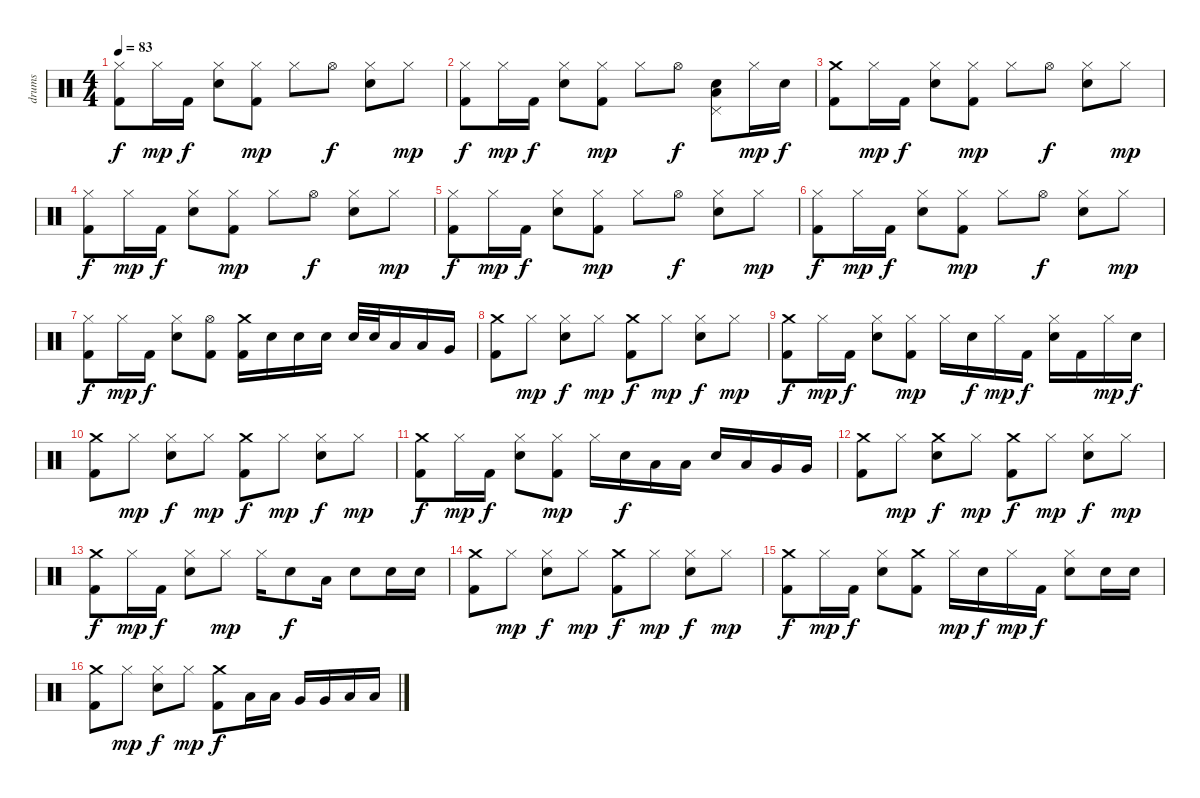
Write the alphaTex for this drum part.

\track ("drums" "drums") {instrument percussion}
\staff {score}
\articulation defaults
\ts (4 4)
\tempo 83
\clef neutral
\ks c
("Kick (hit) 2" "Hi-Hat (closed)").8{dy f} "Hi-Hat (closed)".16{dy mp} "Kick (hit) 2".16{dy f} ("Hi-Hat (closed)" "Electric Snare (hit)").8 ("Hi-Hat (closed)" "Kick (hit) 2").8{dy mp} "Hi-Hat (closed)".8 "Hi-Hat (open)".8{dy f} ("Hi-Hat (closed)" "Electric Snare (hit)").8 "Hi-Hat (closed)".8{dy mp} |
("Hi-Hat (closed)" "Kick (hit) 2").8{dy f} "Hi-Hat (closed)".16{dy mp} "Kick (hit) 2".16{dy f} ("Hi-Hat (closed)" "Electric Snare (hit)").8 ("Hi-Hat (closed)" "Kick (hit) 2").8{dy mp} "Hi-Hat (closed)".8 "Hi-Hat (open)".8{dy f} ("Pedal Hi-Hat (hit)" "Electric Snare (hit)" "Low Floor Tom (hit)").8 "Hi-Hat (closed)".16{dy mp} "Electric Snare (hit)".16{dy f} |
("Crash medium (hit)" "Kick (hit) 2").8 "Hi-Hat (closed)".16{dy mp} "Kick (hit) 2".16{dy f} ("Hi-Hat (closed)" "Electric Snare (hit)").8 ("Hi-Hat (closed)" "Kick (hit) 2").8{dy mp} "Hi-Hat (closed)".8 "Hi-Hat (open)".8{dy f} ("Hi-Hat (closed)" "Electric Snare (hit)").8 "Hi-Hat (closed)".8{dy mp} |
("Kick (hit) 2" "Hi-Hat (closed)").8{dy f} "Hi-Hat (closed)".16{dy mp} "Kick (hit) 2".16{dy f} ("Hi-Hat (closed)" "Electric Snare (hit)").8 ("Hi-Hat (closed)" "Kick (hit) 2").8{dy mp} "Hi-Hat (closed)".8 "Hi-Hat (open)".8{dy f} ("Hi-Hat (closed)" "Electric Snare (hit)").8 "Hi-Hat (closed)".8{dy mp} |
("Hi-Hat (closed)" "Kick (hit) 2").8{dy f} "Hi-Hat (closed)".16{dy mp} "Kick (hit) 2".16{dy f} ("Hi-Hat (closed)" "Electric Snare (hit)").8 ("Hi-Hat (closed)" "Kick (hit) 2").8{dy mp} "Hi-Hat (closed)".8 "Hi-Hat (open)".8{dy f} ("Hi-Hat (closed)" "Electric Snare (hit)").8 "Hi-Hat (closed)".8{dy mp} |
("Hi-Hat (closed)" "Kick (hit) 2").8{dy f} "Hi-Hat (closed)".16{dy mp} "Kick (hit) 2".16{dy f} ("Hi-Hat (closed)" "Electric Snare (hit)").8 ("Hi-Hat (closed)" "Kick (hit) 2").8{dy mp} "Hi-Hat (closed)".8 "Hi-Hat (open)".8{dy f} ("Hi-Hat (closed)" "Electric Snare (hit)").8 "Hi-Hat (closed)".8{dy mp} |
("Hi-Hat (closed)" "Kick (hit) 2").8{dy f} "Hi-Hat (closed)".16{dy mp} "Kick (hit) 2".16{dy f} ("Hi-Hat (closed)" "Electric Snare (hit)").8 ("Hi-Hat (open)" "Kick (hit) 2").8 ("Crash medium (hit)" "Kick (hit) 2").16 "Electric Snare (hit)".16 "Electric Snare (hit)".16 "Electric Snare (hit)".16 "Electric Snare (hit)".32 "Electric Snare (hit)".32 "Low Tom (hit)".16 "Low Tom (hit)".16 "Very Low Tom (hit)".16 |
("Crash medium (hit)" "Kick (hit) 2").8 "Hi-Hat (closed)".8{dy mp} ("Hi-Hat (closed)" "Electric Snare (hit)").8{dy f} "Hi-Hat (closed)".8{dy mp} ("Crash medium (hit)" "Kick (hit) 2").8{dy f} "Hi-Hat (closed)".8{dy mp} ("Hi-Hat (closed)" "Electric Snare (hit)").8{dy f} "Hi-Hat (closed)".8{dy mp} |
("Crash medium (hit)" "Kick (hit) 2").8{dy f} "Hi-Hat (closed)".16{dy mp} "Kick (hit) 2".16{dy f} ("Hi-Hat (closed)" "Electric Snare (hit)").8 ("Hi-Hat (closed)" "Kick (hit) 2").8{dy mp} "Hi-Hat (closed)".16 "Electric Snare (hit)".16{dy f} "Hi-Hat (closed)".16{dy mp} "Kick (hit) 2".16{dy f} ("Hi-Hat (closed)" "Electric Snare (hit)").16 "Kick (hit) 2".16 "Hi-Hat (closed)".16{dy mp} "Electric Snare (hit)".16{dy f} |
("Crash medium (hit)" "Kick (hit) 2").8 "Hi-Hat (closed)".8{dy mp} ("Hi-Hat (closed)" "Electric Snare (hit)").8{dy f} "Hi-Hat (closed)".8{dy mp} ("Crash medium (hit)" "Kick (hit) 2").8{dy f} "Hi-Hat (closed)".8{dy mp} ("Hi-Hat (closed)" "Electric Snare (hit)").8{dy f} "Hi-Hat (closed)".8{dy mp} |
("Crash medium (hit)" "Kick (hit) 2").8{dy f} "Hi-Hat (closed)".16{dy mp} "Kick (hit) 2".16{dy f} ("Hi-Hat (closed)" "Electric Snare (hit)").8 ("Hi-Hat (closed)" "Kick (hit) 2").8{dy mp} "Hi-Hat (closed)".16 "Electric Snare (hit)".16{dy f} "Low Tom (hit)".16 "Low Tom (hit)".16 "Electric Snare (hit)".16 "Low Tom (hit)".16 "Very Low Tom (hit)".16 "Very Low Tom (hit)".16 |
("Crash medium (hit)" "Kick (hit) 2").8 "Hi-Hat (closed)".8{dy mp} ("Crash medium (hit)" "Electric Snare (hit)").8{dy f} "Hi-Hat (closed)".8{dy mp} ("Crash medium (hit)" "Kick (hit) 2").8{dy f} "Hi-Hat (closed)".8{dy mp} ("Hi-Hat (closed)" "Electric Snare (hit)").8{dy f} "Hi-Hat (closed)".8{dy mp} |
("Crash medium (hit)" "Kick (hit) 2").8{dy f} "Hi-Hat (closed)".16{dy mp} "Kick (hit) 2".16{dy f} ("Hi-Hat (closed)" "Electric Snare (hit)").8 "Hi-Hat (closed)".8{dy mp} "Hi-Hat (closed)".16 "Electric Snare (hit)".8{dy f} "Low Tom (hit)".16 "Electric Snare (hit)".8 "Electric Snare (hit)".16 "Electric Snare (hit)".16 |
("Crash medium (hit)" "Kick (hit) 2").8 "Hi-Hat (closed)".8{dy mp} ("Hi-Hat (closed)" "Electric Snare (hit)").8{dy f} "Hi-Hat (closed)".8{dy mp} ("Crash medium (hit)" "Kick (hit) 2").8{dy f} "Hi-Hat (closed)".8{dy mp} ("Hi-Hat (closed)" "Electric Snare (hit)").8{dy f} "Hi-Hat (closed)".8{dy mp} |
("Crash medium (hit)" "Kick (hit) 2").8{dy f} "Hi-Hat (closed)".16{dy mp} "Kick (hit) 2".16{dy f} ("Hi-Hat (closed)" "Electric Snare (hit)").8 ("Crash medium (hit)" "Kick (hit) 2").8 "Hi-Hat (closed)".16{dy mp} "Electric Snare (hit)".16{dy f} "Hi-Hat (closed)".16{dy mp} "Kick (hit) 2".16{dy f} ("Hi-Hat (closed)" "Electric Snare (hit)").8 "Electric Snare (hit)".16 "Electric Snare (hit)".16 |
("Crash medium (hit)" "Kick (hit) 2").8 "Hi-Hat (closed)".8{dy mp} ("Hi-Hat (closed)" "Electric Snare (hit)").8{dy f} "Hi-Hat (closed)".8{dy mp} ("Crash medium (hit)" "Kick (hit) 2").8{dy f} "Low Tom (hit)".16 "Low Tom (hit)".16 "Very Low Tom (hit)".16 "Very Low Tom (hit)".16 "Low Floor Tom (hit)".16 "Low Floor Tom (hit)".16
